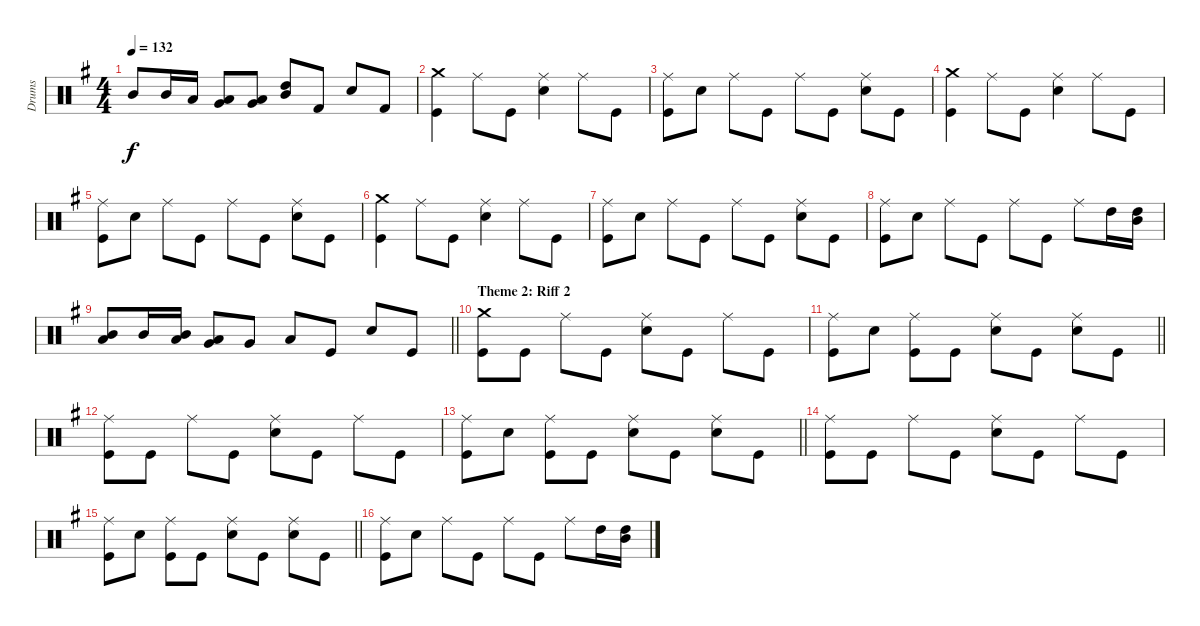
\track ("Drums" "Drums") {instrument percussion}
\staff {score}
\articulation defaults
\ts (4 4)
\tempo 132
\clef neutral
\ks g "Mid Tom (hit)".8{dy f balance 6} "Mid Tom (hit)".16 "Low Tom (hit)".16
("Low Tom (hit)" "Very Low Tom (hit)").8{balance 12} ("Low Tom (hit)" "Very Low Tom (hit)").8 ("High Tom (hit)" "Mid Tom (hit)").8 "Kick (hit) 2".8{balance 16} "Snare (hit) 2".8 "Kick (hit) 2".8 |
("Crash medium (hit)" "Kick (hit)").4{balance 8} "Ride (middle)".8 "Kick (hit)".8 ("Ride (middle)" "Snare (hit) 2").4 "Ride (middle)".8 "Kick (hit)".8 |
("Ride (middle)" "Kick (hit)").8 "Snare (hit) 2".8 "Ride (middle)".8 "Kick (hit)".8 "Ride (middle)".8 "Kick (hit)".8 ("Ride (middle)" "Snare (hit) 2").8 "Kick (hit)".8 |
("Crash medium (hit)" "Kick (hit)").4 "Ride (middle)".8 "Kick (hit)".8 ("Ride (middle)" "Snare (hit) 2").4 "Ride (middle)".8 "Kick (hit)".8 |
("Ride (middle)" "Kick (hit)").8 "Snare (hit) 2".8 "Ride (middle)".8 "Kick (hit)".8 "Ride (middle)".8 "Kick (hit)".8 ("Ride (middle)" "Snare (hit) 2").8 "Kick (hit)".8 |
("Crash medium (hit)" "Kick (hit)").4{balance 8} "Ride (middle)".8 "Kick (hit)".8 ("Ride (middle)" "Snare (hit) 2").4 "Ride (middle)".8 "Kick (hit)".8 |
("Ride (middle)" "Kick (hit)").8 "Snare (hit) 2".8 "Ride (middle)".8 "Kick (hit)".8 "Ride (middle)".8 "Kick (hit)".8 ("Ride (middle)" "Snare (hit) 2").8 "Kick (hit)".8 |
("Ride (middle)" "Kick (hit)").8 "Snare (hit) 2".8 "Ride (middle)".8 "Kick (hit)".8 "Ride (middle)".8 "Kick (hit)".8 "Ride (middle)".8 "High Tom (hit)".16 ("High Tom (hit)" "Mid Tom (hit)").16 |
\barLineRight lightlight
("Mid Tom (hit)" "Low Tom (hit)").8{balance 6} "Mid Tom (hit)".16 ("Mid Tom (hit)" "Low Tom (hit)").16 ("Low Tom (hit)" "Very Low Tom (hit)").8{balance 10} "Very Low Tom (hit)".8 "Low Floor Tom (hit)".8 "Kick (hit)".8{balance 8} "Snare (hit) 2".8 "Kick (hit)".8 |
\section ("" "Theme 2: Riff 2")
("Crash medium (hit)" "Kick (hit)").8 "Kick (hit)".8 "Ride (middle)".8 "Kick (hit)".8 ("Ride (middle)" "Snare (hit) 2").8 "Kick (hit)".8 "Ride (middle)".8 "Kick (hit)".8 |
\barLineRight lightlight
("Ride (middle)" "Kick (hit)").8 "Snare (hit) 2".8 ("Ride (middle)" "Kick (hit)").8 "Kick (hit)".8 ("Ride (middle)" "Snare (hit) 2").8 "Kick (hit)".8 ("Ride (middle)" "Snare (hit) 2").8 "Kick (hit)".8 |
("Ride (middle)" "Kick (hit)").8 "Kick (hit)".8 "Ride (middle)".8 "Kick (hit)".8 ("Ride (middle)" "Snare (hit) 2").8 "Kick (hit)".8 "Ride (middle)".8 "Kick (hit)".8 |
\barLineRight lightlight
("Ride (middle)" "Kick (hit)").8 "Snare (hit) 2".8 ("Ride (middle)" "Kick (hit)").8 "Kick (hit)".8 ("Ride (middle)" "Snare (hit) 2").8 "Kick (hit)".8 ("Ride (middle)" "Snare (hit) 2").8 "Kick (hit)".8 |
("Ride (middle)" "Kick (hit)").8 "Kick (hit)".8 "Ride (middle)".8 "Kick (hit)".8 ("Ride (middle)" "Snare (hit) 2").8 "Kick (hit)".8 "Ride (middle)".8 "Kick (hit)".8 |
\barLineRight lightlight
("Ride (middle)" "Kick (hit)").8 "Snare (hit) 2".8 ("Ride (middle)" "Kick (hit)").8 "Kick (hit)".8 ("Ride (middle)" "Snare (hit) 2").8 "Kick (hit)".8 ("Ride (middle)" "Snare (hit) 2").8 "Kick (hit)".8 |
("Ride (middle)" "Kick (hit)").8 "Snare (hit) 2".8 "Ride (middle)".8 "Kick (hit)".8 "Ride (middle)".8 "Kick (hit)".8 "Ride (middle)".8 "High Tom (hit)".16 ("High Tom (hit)" "Mid Tom (hit)").16
